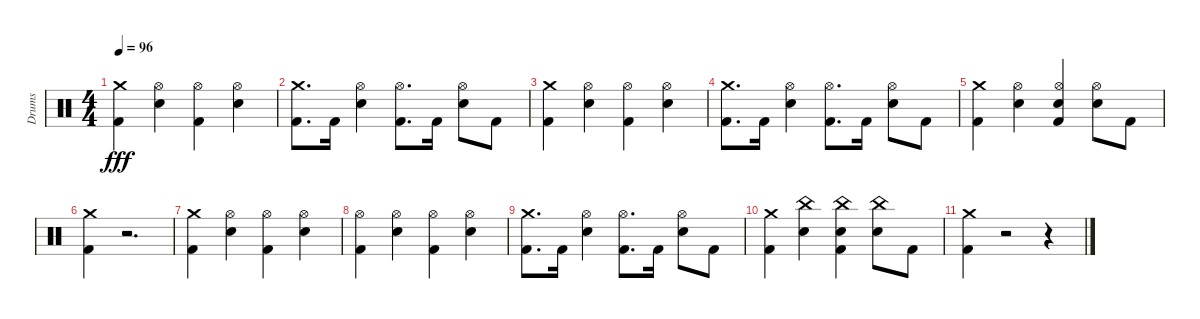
\track ("Drums" "Drums") {instrument percussion}
\staff {score}
\articulation defaults
\ts (4 4)
\tempo 96
\clef neutral
\ks c
("Kick (hit) 2" "Crash medium (hit)").4{dy fff} ("Hi-Hat (open)" "Snare (hit) 2").4 ("Hi-Hat (open)" "Kick (hit) 2").4 ("Hi-Hat (open)" "Snare (hit) 2").4 |
("Kick (hit) 2" "Crash medium (hit)").8{d} "Kick (hit) 2".16 ("Snare (hit) 2" "Hi-Hat (open)").4 ("Kick (hit) 2" "Hi-Hat (open)").8{d} "Kick (hit) 2".16 ("Snare (hit) 2" "Hi-Hat (open)").8 "Kick (hit) 2".8 |
("Kick (hit) 2" "Crash medium (hit)").4 ("Hi-Hat (open)" "Snare (hit) 2").4 ("Hi-Hat (open)" "Kick (hit) 2").4 ("Hi-Hat (open)" "Snare (hit) 2").4 |
("Kick (hit) 2" "Crash medium (hit)").8{d} "Kick (hit) 2".16 ("Snare (hit) 2" "Hi-Hat (open)").4 ("Kick (hit) 2" "Hi-Hat (open)").8{d} "Kick (hit) 2".16 ("Snare (hit) 2" "Hi-Hat (open)").8 "Kick (hit) 2".8 |
("Kick (hit) 2" "Crash medium (hit)").4 ("Hi-Hat (open)" "Snare (hit) 2").4 ("Hi-Hat (open)" "Snare (hit) 2" "Kick (hit) 2").4 ("Hi-Hat (open)" "Snare (hit) 2").8 "Kick (hit) 2".8 |
("Kick (hit) 2" "Crash medium (hit)").4 r.2{d} |
("Kick (hit) 2" "Crash medium (hit)").4 ("Hi-Hat (open)" "Snare (hit) 2").4 ("Hi-Hat (open)" "Kick (hit) 2").4 ("Hi-Hat (open)" "Snare (hit) 2").4 |
("Hi-Hat (open)" "Kick (hit) 2").4 ("Hi-Hat (open)" "Snare (hit) 2").4 ("Hi-Hat (open)" "Kick (hit) 2").4 ("Hi-Hat (open)" "Snare (hit) 2").4 |
("Kick (hit) 2" "Crash medium (hit)").8{d} "Kick (hit) 2".16 ("Snare (hit) 2" "Hi-Hat (open)").4 ("Kick (hit) 2" "Hi-Hat (open)").8{d} "Kick (hit) 2".16 ("Snare (hit) 2" "Hi-Hat (open)").8 "Kick (hit) 2".8 |
("Kick (hit) 2" "Crash medium (hit)").4 ("Snare (hit) 2" "China (hit)").4 ("Snare (hit) 2" "Kick (hit) 2" "China (hit)").4 ("Snare (hit) 2" "China (hit)").8 "Kick (hit) 2".8 |
("Kick (hit) 2" "Crash medium (hit)").4 r.2 r.4
